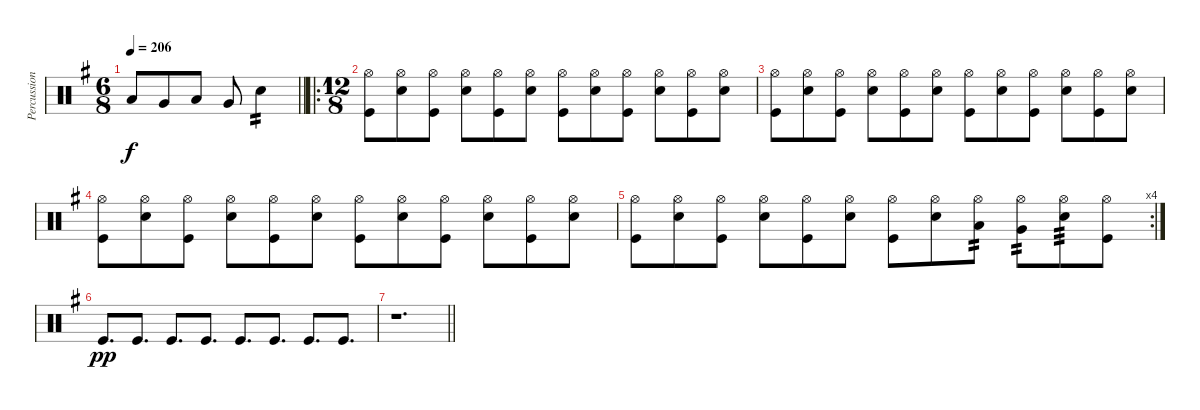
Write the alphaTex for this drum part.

\track ("Percussion" "Percussion") {instrument percussion}
\staff {score}
\articulation defaults
\ts (6 8)
\tempo 206
\clef neutral
\barLineRight lightlight
\ks g "Low Tom (hit)".8{dy f} "Very Low Tom (hit)".8 "Low Tom (hit)".8 "Very Low Tom (hit)".8 "Electric Snare (hit)".4{tp 2}
|
\ro
\ts (12 8)
\section ("" "")
("Kick (hit)" "Hi-Hat (open)").8 ("Electric Snare (hit)" "Hi-Hat (open)").8 ("Kick (hit)" "Hi-Hat (open)").8 ("Electric Snare (hit)" "Hi-Hat (open)").8 ("Kick (hit)" "Hi-Hat (open)").8 ("Electric Snare (hit)" "Hi-Hat (open)").8 ("Kick (hit)" "Hi-Hat (open)").8 ("Electric Snare (hit)" "Hi-Hat (open)").8 ("Kick (hit)" "Hi-Hat (open)").8 ("Electric Snare (hit)" "Hi-Hat (open)").8 ("Kick (hit)" "Hi-Hat (open)").8 ("Electric Snare (hit)" "Hi-Hat (open)").8 |
("Kick (hit)" "Hi-Hat (open)").8 ("Electric Snare (hit)" "Hi-Hat (open)").8 ("Kick (hit)" "Hi-Hat (open)").8 ("Electric Snare (hit)" "Hi-Hat (open)").8 ("Kick (hit)" "Hi-Hat (open)").8 ("Electric Snare (hit)" "Hi-Hat (open)").8 ("Kick (hit)" "Hi-Hat (open)").8 ("Electric Snare (hit)" "Hi-Hat (open)").8 ("Kick (hit)" "Hi-Hat (open)").8 ("Electric Snare (hit)" "Hi-Hat (open)").8 ("Kick (hit)" "Hi-Hat (open)").8 ("Electric Snare (hit)" "Hi-Hat (open)").8 |
("Kick (hit)" "Hi-Hat (open)").8 ("Electric Snare (hit)" "Hi-Hat (open)").8 ("Kick (hit)" "Hi-Hat (open)").8 ("Electric Snare (hit)" "Hi-Hat (open)").8 ("Kick (hit)" "Hi-Hat (open)").8 ("Electric Snare (hit)" "Hi-Hat (open)").8 ("Kick (hit)" "Hi-Hat (open)").8 ("Electric Snare (hit)" "Hi-Hat (open)").8 ("Kick (hit)" "Hi-Hat (open)").8 ("Electric Snare (hit)" "Hi-Hat (open)").8 ("Kick (hit)" "Hi-Hat (open)").8 ("Electric Snare (hit)" "Hi-Hat (open)").8 |
\rc 4
("Kick (hit)" "Hi-Hat (open)").8 ("Electric Snare (hit)" "Hi-Hat (open)").8 ("Kick (hit)" "Hi-Hat (open)").8 ("Electric Snare (hit)" "Hi-Hat (open)").8 ("Kick (hit)" "Hi-Hat (open)").8 ("Electric Snare (hit)" "Hi-Hat (open)").8 ("Kick (hit)" "Hi-Hat (open)").8 ("Electric Snare (hit)" "Hi-Hat (open)").8 ("Low Tom (hit)" "Hi-Hat (open)").8{tp 2} ("Very Low Tom (hit)" "Hi-Hat (open)").8{tp 2} ("Electric Snare (hit)" "Hi-Hat (open)").8{tp 3} ("Kick (hit)" "Hi-Hat (open)").8 |
"Kick (hit)".8{d dy pp} "Kick (hit)".8{d} "Kick (hit)".8{d} "Kick (hit)".8{d} "Kick (hit)".8{d} "Kick (hit)".8{d} "Kick (hit)".8{d} "Kick (hit)".8{d} |
\barLineRight lightlight
r.1{d}
